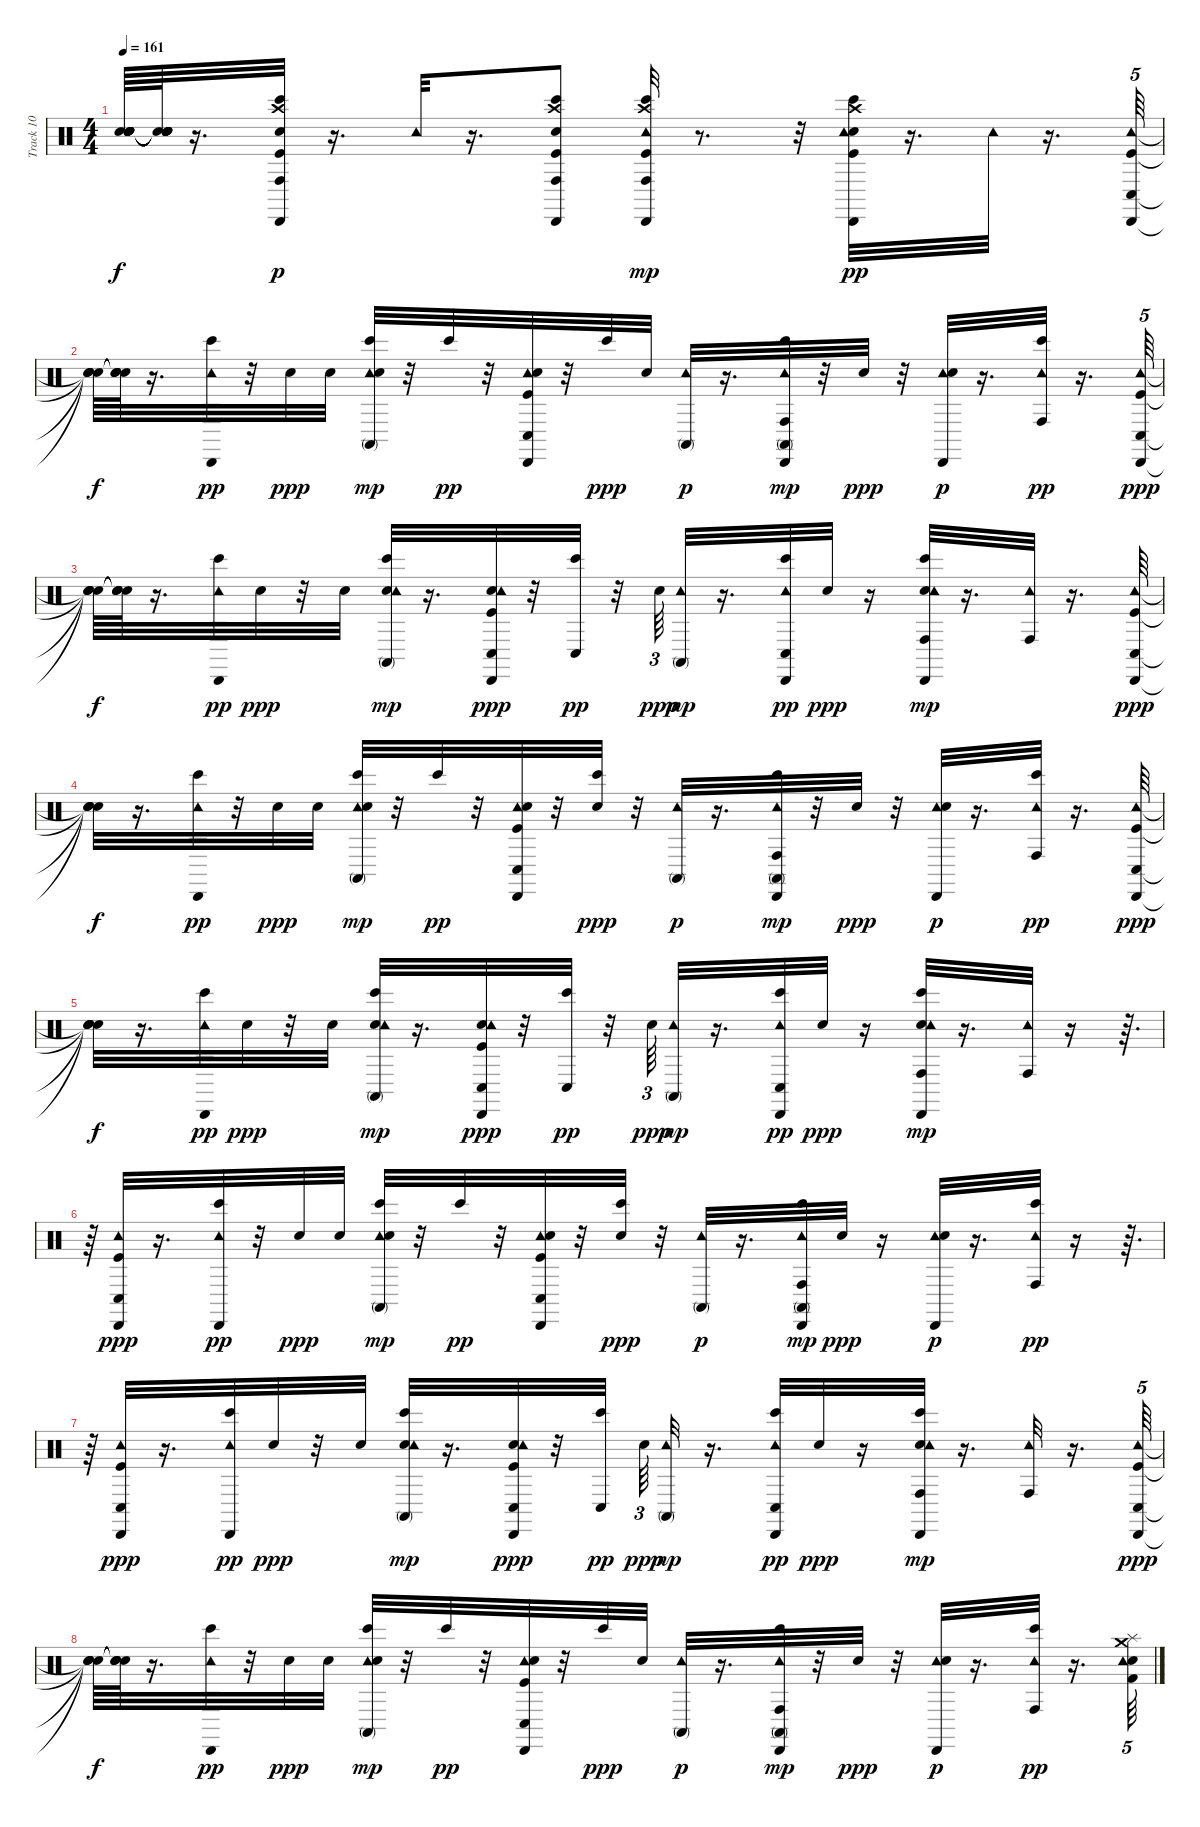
\track ("Track 10" "Track 10") {instrument percussion}
\staff {score}
\articulation defaults
\ts (4 4)
\tempo 161
\clef neutral
\ks c
("Snare (hit)"{t} "Snare (hit)"{t} "Snare (hit)"{t} "Snare (hit)"{t} "Snare (hit)"{t} "Snare (hit)"{t}).64{dy f} ("Snare (hit)"{t} "Snare (hit)"{t} "Snare (hit)"{t} "Snare (hit)"{t} "Snare (hit)"{t} "Snare (hit)"{t}).64 r.16{d} ("Conga high (hit)" "Bongo High (hit)" "Cabasa (hit)" "Kick (hit)" "Electric Snare (hit)" "Crash high (hit)").32{dy p} r.16{d} "Tambourine (hit)".32 r.16{d} ("Conga high (hit)" "Kick (hit)" "Bongo High (hit)" "Cabasa (hit)" "Electric Snare (hit)" "Crash high (hit)").8 ("Conga high (hit)" "Cabasa (hit)" "Bongo High (hit)" "Crash high (hit)" "Kick (hit)" "Tambourine (hit)").32{dy mp} r.8{d} r.32 ("Crash high (hit)" "Bongo High (hit)" "Kick (hit)" "Electric Snare (hit)" "Tambourine (hit)" "Cabasa (hit)").32{dy pp} r.16{d} "Tambourine (hit)".32 r.16{d} ("Kick (hit)" "Tambourine (hit)" "Conga low (hit)" "Cabasa (hit)").64{tu (5 4)} |
("Snare (hit)"{t} "Snare (hit)"{t} "Snare (hit)"{t} "Snare (hit)"{t}).64{dy f} ("Snare (hit)"{t} "Snare (hit)"{t} "Snare (hit)"{t} "Snare (hit)"{t}).64 r.16{d} ("Tambourine (hit)" "Cabasa (hit)" "Bongo High (hit)").32{dy pp} r.32 "Electric Snare (hit)".32{dy ppp} "Electric Snare (hit)".32 ("Tambourine (hit)" "Bongo High (hit)" "Conga high (mute)" "Electric Snare (hit)").32{dy mp} r.32 "Bongo High (hit)".32{dy pp} r.32 ("Tambourine (hit)" "Conga low (hit)" "Cabasa (hit)" "Kick (hit)" "Electric Snare (hit)").32 r.32 "Bongo High (hit)".32{dy ppp} "Electric Snare (hit)".32 ("Tambourine (hit)" "Conga high (mute)").32{dy p} r.16{d} ("Tambourine (hit)" "Cabasa (hit)" "Bongo High (hit)" "Conga high (mute)" "Conga high (hit)").32{dy mp} r.32 "Electric Snare (hit)".32{dy ppp} r.32 ("Tambourine (hit)" "Cabasa (hit)" "Electric Snare (hit)").32{dy p} r.16{d} ("Tambourine (hit)" "Conga high (hit)" "Bongo High (hit)").32{dy pp} r.16{d} ("Kick (hit)" "Tambourine (hit)" "Cabasa (hit)" "Conga low (hit)").64{tu (5 4) dy ppp} |
("Snare (hit)"{t} "Snare (hit)"{t} "Snare (hit)"{t} "Snare (hit)"{t}).64{dy f} ("Snare (hit)"{t} "Snare (hit)"{t} "Snare (hit)"{t} "Snare (hit)"{t}).64 r.16{d} ("Tambourine (hit)" "Cabasa (hit)" "Bongo High (hit)").32{dy pp} "Electric Snare (hit)".32{dy ppp} r.32 "Electric Snare (hit)".32 ("Electric Snare (hit)" "Tambourine (hit)" "Bongo High (hit)" "Conga high (mute)").32{dy mp} r.16{d} ("Kick (hit)" "Electric Snare (hit)" "Tambourine (hit)" "Cabasa (hit)" "Conga low (hit)").32{dy ppp} r.32 ("Bongo High (hit)" "Conga low (hit)").32{dy pp} r.32 "Electric Snare (hit)".64{tu (3 2) dy ppp} ("Tambourine (hit)" "Conga high (mute)").32{dy mp} r.16{d} ("Bongo High (hit)" "Tambourine (hit)" "Cabasa (hit)" "Conga low (hit)").32{dy pp} "Electric Snare (hit)".32{dy ppp} r.16 ("Electric Snare (hit)" "Bongo High (hit)" "Tambourine (hit)" "Cabasa (hit)" "Conga high (hit)").32{dy mp} r.16{d} ("Tambourine (hit)" "Conga high (hit)").32 r.16{d} ("Kick (hit)" "Tambourine (hit)" "Cabasa (hit)" "Conga low (hit)").64{dy ppp} |
("Snare (hit)"{t} "Snare (hit)"{t} "Snare (hit)"{t} "Snare (hit)"{t}).32{dy f} r.16{d} ("Tambourine (hit)" "Cabasa (hit)" "Bongo High (hit)").32{dy pp} r.32 "Electric Snare (hit)".32{dy ppp} "Electric Snare (hit)".32 ("Tambourine (hit)" "Bongo High (hit)" "Conga high (mute)" "Electric Snare (hit)").32{dy mp} r.32 "Bongo High (hit)".32{dy pp} r.32 ("Tambourine (hit)" "Conga low (hit)" "Cabasa (hit)" "Kick (hit)" "Electric Snare (hit)").32 r.32 ("Bongo High (hit)" "Electric Snare (hit)").32{dy ppp} r.32 ("Tambourine (hit)" "Conga high (mute)").32{dy p} r.16{d} ("Tambourine (hit)" "Cabasa (hit)" "Bongo High (hit)" "Conga high (mute)" "Conga high (hit)").32{dy mp} r.32 "Electric Snare (hit)".32{dy ppp} r.32 ("Tambourine (hit)" "Cabasa (hit)" "Electric Snare (hit)").32{dy p} r.16{d} ("Tambourine (hit)" "Conga high (hit)" "Bongo High (hit)").32{dy pp} r.16{d} ("Kick (hit)" "Tambourine (hit)" "Cabasa (hit)" "Conga low (hit)").64{dy ppp} |
("Snare (hit)"{t} "Snare (hit)"{t} "Snare (hit)"{t} "Snare (hit)"{t}).32{dy f} r.16{d} ("Tambourine (hit)" "Cabasa (hit)" "Bongo High (hit)").32{dy pp} "Electric Snare (hit)".32{dy ppp} r.32 "Electric Snare (hit)".32 ("Electric Snare (hit)" "Tambourine (hit)" "Bongo High (hit)" "Conga high (mute)").32{dy mp} r.16{d} ("Kick (hit)" "Electric Snare (hit)" "Tambourine (hit)" "Cabasa (hit)" "Conga low (hit)").32{dy ppp} r.32 ("Bongo High (hit)" "Conga low (hit)").32{dy pp} r.32 "Electric Snare (hit)".64{tu (3 2) dy ppp} ("Tambourine (hit)" "Conga high (mute)").32{dy mp} r.16{d} ("Bongo High (hit)" "Tambourine (hit)" "Cabasa (hit)" "Conga low (hit)").32{dy pp} "Electric Snare (hit)".32{dy ppp} r.16 ("Electric Snare (hit)" "Bongo High (hit)" "Tambourine (hit)" "Cabasa (hit)" "Conga high (hit)").32{dy mp} r.16{d} ("Tambourine (hit)" "Conga high (hit)").32 r.16 r.64{d} |
r.64 ("Kick (hit)" "Tambourine (hit)" "Cabasa (hit)" "Conga low (hit)").32{dy ppp} r.16{d} ("Tambourine (hit)" "Cabasa (hit)" "Bongo High (hit)").32{dy pp} r.32 "Electric Snare (hit)".32{dy ppp} "Electric Snare (hit)".32 ("Tambourine (hit)" "Bongo High (hit)" "Conga high (mute)" "Electric Snare (hit)").32{dy mp} r.32 "Bongo High (hit)".32{dy pp} r.32 ("Tambourine (hit)" "Conga low (hit)" "Cabasa (hit)" "Kick (hit)" "Electric Snare (hit)").32 r.32 ("Bongo High (hit)" "Electric Snare (hit)").32{dy ppp} r.32 ("Tambourine (hit)" "Conga high (mute)").32{dy p} r.16{d} ("Tambourine (hit)" "Cabasa (hit)" "Bongo High (hit)" "Conga high (mute)" "Conga high (hit)").32{dy mp} "Electric Snare (hit)".32{dy ppp} r.16 ("Tambourine (hit)" "Cabasa (hit)" "Electric Snare (hit)").32{dy p} r.16{d} ("Tambourine (hit)" "Conga high (hit)" "Bongo High (hit)").32{dy pp} r.16 r.64{d} |
r.64 ("Kick (hit)" "Tambourine (hit)" "Cabasa (hit)" "Conga low (hit)").32{dy ppp} r.16{d} ("Tambourine (hit)" "Cabasa (hit)" "Bongo High (hit)").32{dy pp} "Electric Snare (hit)".32{dy ppp} r.32 "Electric Snare (hit)".32 ("Electric Snare (hit)" "Tambourine (hit)" "Bongo High (hit)" "Conga high (mute)").32{dy mp} r.16{d} ("Kick (hit)" "Electric Snare (hit)" "Tambourine (hit)" "Cabasa (hit)" "Conga low (hit)").32{dy ppp} r.32 ("Bongo High (hit)" "Conga low (hit)").32{dy pp beam splitsecondary} "Electric Snare (hit)".64{tu (3 2) dy ppp} ("Tambourine (hit)" "Conga high (mute)").32{dy mp} r.16{d} ("Bongo High (hit)" "Tambourine (hit)" "Cabasa (hit)" "Conga low (hit)").32{dy pp} "Electric Snare (hit)".32{dy ppp} r.16 ("Electric Snare (hit)" "Bongo High (hit)" "Tambourine (hit)" "Cabasa (hit)" "Conga high (hit)").32{dy mp} r.16{d} ("Tambourine (hit)" "Conga high (hit)").32 r.16{d} ("Kick (hit)" "Tambourine (hit)" "Cabasa (hit)" "Conga low (hit)").64{tu (5 4) dy ppp} |
("Snare (hit)"{t} "Snare (hit)"{t} "Snare (hit)"{t} "Snare (hit)"{t}).64{dy f} ("Snare (hit)"{t} "Snare (hit)"{t} "Snare (hit)"{t} "Snare (hit)"{t}).64 r.16{d} ("Tambourine (hit)" "Cabasa (hit)" "Bongo High (hit)").32{dy pp} r.32 "Electric Snare (hit)".32{dy ppp} "Electric Snare (hit)".32 ("Tambourine (hit)" "Bongo High (hit)" "Conga high (mute)" "Electric Snare (hit)").32{dy mp} r.32 "Bongo High (hit)".32{dy pp} r.32 ("Tambourine (hit)" "Conga low (hit)" "Cabasa (hit)" "Kick (hit)" "Electric Snare (hit)").32 r.32 "Bongo High (hit)".32{dy ppp} "Electric Snare (hit)".32 ("Tambourine (hit)" "Conga high (mute)").32{dy p} r.16{d} ("Tambourine (hit)" "Cabasa (hit)" "Bongo High (hit)" "Conga high (mute)" "Conga high (hit)").32{dy mp} r.32 "Electric Snare (hit)".32{dy ppp} r.32 ("Tambourine (hit)" "Cabasa (hit)" "Electric Snare (hit)").32{dy p} r.16{d} ("Tambourine (hit)" "Conga high (hit)" "Bongo High (hit)").32{dy pp} r.16{d} ("Splash (hit)" "Kick (hit) 2" "Electric Snare (hit)" "Crash medium (hit)" "Tambourine (hit)").64{tu (5 4)}
